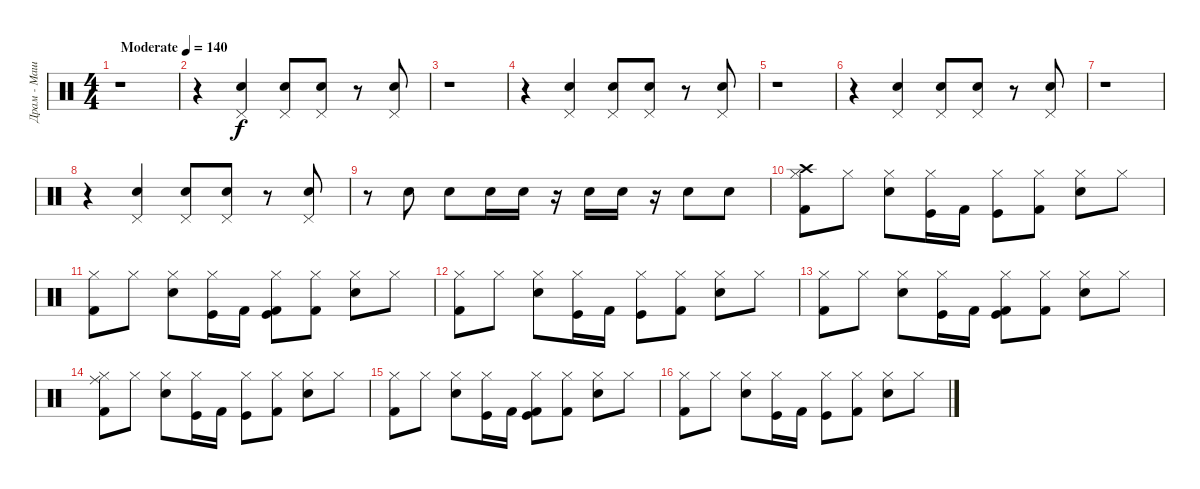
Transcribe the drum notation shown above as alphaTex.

\track ("Драм - Машина" "Драм - Маш") {instrument percussion}
\staff {score}
\articulation defaults
\ts (4 4)
\tempo (140 "Moderate")
\clef neutral
\ks c
r.1{dy f} |
r.4 ("Pedal Hi-Hat (hit)" "Snare (hit) 2").4 ("Pedal Hi-Hat (hit)" "Snare (hit) 2").8 ("Pedal Hi-Hat (hit)" "Snare (hit) 2").8 r.8 ("Pedal Hi-Hat (hit)" "Snare (hit) 2").8 |
r.1 |
r.4 ("Pedal Hi-Hat (hit)" "Snare (hit) 2").4 ("Pedal Hi-Hat (hit)" "Snare (hit) 2").8 ("Pedal Hi-Hat (hit)" "Snare (hit) 2").8 r.8 ("Pedal Hi-Hat (hit)" "Snare (hit) 2").8 |
r.1 |
r.4 ("Pedal Hi-Hat (hit)" "Snare (hit) 2").4 ("Pedal Hi-Hat (hit)" "Snare (hit) 2").8 ("Pedal Hi-Hat (hit)" "Snare (hit) 2").8 r.8 ("Pedal Hi-Hat (hit)" "Snare (hit) 2").8 |
r.1 |
r.4 ("Pedal Hi-Hat (hit)" "Snare (hit) 2").4 ("Pedal Hi-Hat (hit)" "Snare (hit) 2").8 ("Pedal Hi-Hat (hit)" "Snare (hit) 2").8 r.8 ("Pedal Hi-Hat (hit)" "Snare (hit) 2").8 |
r.8 "Electric Snare (hit)".8 "Electric Snare (hit)".8 "Snare (hit) 2".16 "Electric Snare (hit)".16 r.16 "Electric Snare (hit)".16 "Snare (hit) 2".16 r.16 "Electric Snare (hit)".8 "Electric Snare (hit)".8 |
("Crash high (hit)" "Hi-Hat (closed)" "Kick (hit) 2").8 "Hi-Hat (closed)".8 ("Hi-Hat (closed)" "Electric Snare (hit)").8 ("Hi-Hat (closed)" "Kick (hit)").16 "Kick (hit) 2".16 ("Hi-Hat (closed)" "Kick (hit)").8 ("Hi-Hat (closed)" "Kick (hit) 2").8 ("Hi-Hat (closed)" "Electric Snare (hit)").8 "Hi-Hat (closed)".8 |
("Hi-Hat (closed)" "Kick (hit) 2").8 "Hi-Hat (closed)".8 ("Hi-Hat (closed)" "Electric Snare (hit)").8 ("Hi-Hat (closed)" "Kick (hit)").16 "Kick (hit) 2".16 ("Kick (hit) 2" "Hi-Hat (closed)" "Kick (hit)").8 ("Hi-Hat (closed)" "Kick (hit) 2").8 ("Hi-Hat (closed)" "Electric Snare (hit)").8 "Hi-Hat (closed)".8 |
("Hi-Hat (closed)" "Kick (hit) 2").8 "Hi-Hat (closed)".8 ("Hi-Hat (closed)" "Electric Snare (hit)").8 ("Hi-Hat (closed)" "Kick (hit)").16 "Kick (hit) 2".16 ("Hi-Hat (closed)" "Kick (hit)").8 ("Hi-Hat (closed)" "Kick (hit) 2").8 ("Hi-Hat (closed)" "Electric Snare (hit)").8 "Hi-Hat (closed)".8 |
("Hi-Hat (closed)" "Kick (hit) 2").8 "Hi-Hat (closed)".8 ("Hi-Hat (closed)" "Electric Snare (hit)").8 ("Hi-Hat (closed)" "Kick (hit)").16 "Kick (hit) 2".16 ("Kick (hit) 2" "Hi-Hat (closed)" "Kick (hit)").8 ("Hi-Hat (closed)" "Kick (hit) 2").8 ("Hi-Hat (closed)" "Electric Snare (hit)").8 "Hi-Hat (closed)".8 |
("Ride (middle)" "Hi-Hat (closed)" "Kick (hit) 2").8 "Hi-Hat (closed)".8 ("Hi-Hat (closed)" "Electric Snare (hit)").8 ("Hi-Hat (closed)" "Kick (hit)").16 "Kick (hit) 2".16 ("Hi-Hat (closed)" "Kick (hit)").8 ("Hi-Hat (closed)" "Kick (hit) 2").8 ("Hi-Hat (closed)" "Electric Snare (hit)").8 "Hi-Hat (closed)".8 |
("Hi-Hat (closed)" "Kick (hit) 2").8 "Hi-Hat (closed)".8 ("Hi-Hat (closed)" "Electric Snare (hit)").8 ("Hi-Hat (closed)" "Kick (hit)").16 "Kick (hit) 2".16 ("Kick (hit) 2" "Hi-Hat (closed)" "Kick (hit)").8 ("Hi-Hat (closed)" "Kick (hit) 2").8 ("Hi-Hat (closed)" "Electric Snare (hit)").8 "Hi-Hat (closed)".8 |
("Hi-Hat (closed)" "Kick (hit) 2").8 "Hi-Hat (closed)".8 ("Hi-Hat (closed)" "Electric Snare (hit)").8 ("Hi-Hat (closed)" "Kick (hit)").16 "Kick (hit) 2".16 ("Hi-Hat (closed)" "Kick (hit)").8 ("Hi-Hat (closed)" "Kick (hit) 2").8 ("Hi-Hat (closed)" "Electric Snare (hit)").8 "Hi-Hat (closed)".8
